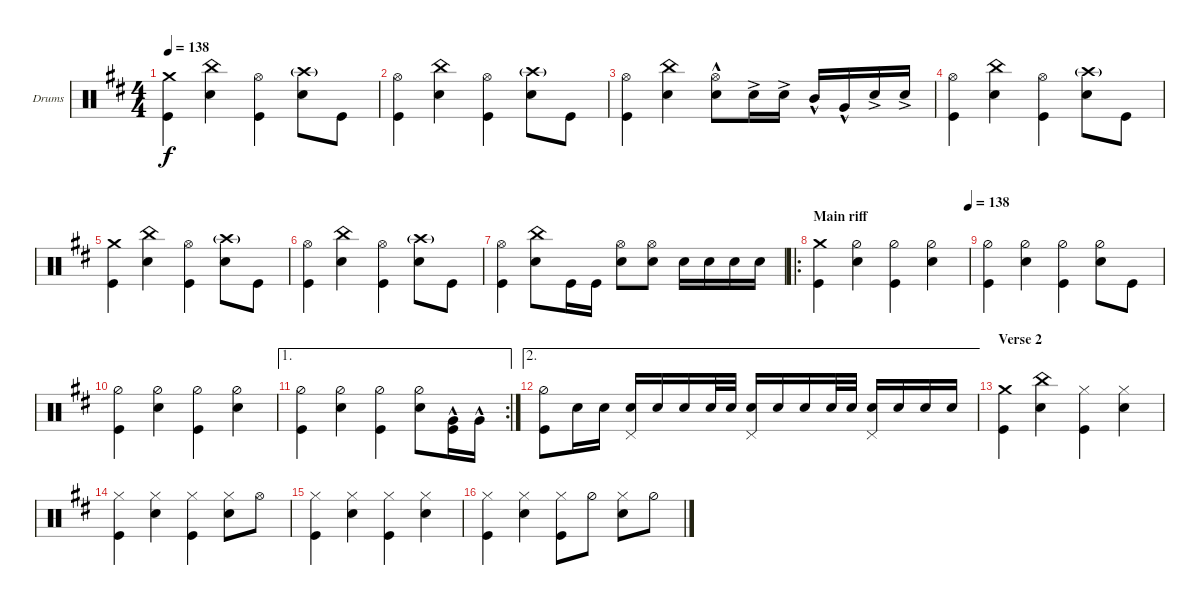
\defaultSystemsLayout 4
\bracketExtendMode groupsimilarinstruments
\firstSystemTrackNameOrientation horizontal
\otherSystemsTrackNameOrientation horizontal
\track ("Drumkit" "Drums") {instrument percussion}
\staff {score}
\articulation defaults
\ts (4 4)
\tempo 138
\clef neutral
\ks d
("Kick (hit)" "Crash medium (hit)").4{dy f} ("Snare (hit) 2" "China (hit)").4 ("Kick (hit)" "Hi-Hat (open)").4 ("Snare (hit) 2" "Crash high (hit)"{g}).8 "Kick (hit)".8 |
("Kick (hit)" "Hi-Hat (open)").4 ("Snare (hit) 2" "China (hit)").4 ("Kick (hit)" "Hi-Hat (open)").4 ("Snare (hit) 2" "Crash high (hit)"{g}).8 "Kick (hit)".8 |
("Kick (hit)" "Hi-Hat (open)").4 ("Snare (hit) 2" "China (hit)").4 ("Snare (hit) 2"{hac} "Hi-Hat (open)").8 "Snare (hit) 2"{ac}.16 "Snare (hit) 2"{ac}.16 "Mid Tom (hit)"{hac}.16 "Very Low Tom (hit)"{hac}.16 "Snare (hit) 2"{ac}.16 "Snare (hit) 2"{ac}.16 |
("Kick (hit)" "Hi-Hat (open)").4 ("Snare (hit) 2" "China (hit)").4 ("Kick (hit)" "Hi-Hat (open)").4 ("Snare (hit) 2" "Crash high (hit)"{g}).8 "Kick (hit)".8 |
("Kick (hit)" "Crash medium (hit)").4 ("Snare (hit) 2" "China (hit)").4 ("Kick (hit)" "Hi-Hat (open)").4 ("Snare (hit) 2" "Crash high (hit)"{g}).8 "Kick (hit)".8 |
("Kick (hit)" "Hi-Hat (open)").4 ("Snare (hit) 2" "China (hit)").4 ("Kick (hit)" "Hi-Hat (open)").4 ("Snare (hit) 2" "Crash high (hit)"{g}).8 "Kick (hit)".8 |
("Kick (hit)" "Hi-Hat (open)").4 ("Snare (hit) 2" "China (hit)").8 "Kick (hit)".16 "Kick (hit)".16 ("Snare (hit) 2" "Hi-Hat (open)").8 ("Snare (hit) 2" "Hi-Hat (open)").8 "Snare (hit) 2".16 "Snare (hit) 2".16 "Snare (hit) 2".16 "Snare (hit) 2".16 |
\ro
\section ("" "Main riff")
\tempo (138 1)
("Kick (hit)" "Crash medium (hit)").4 ("Hi-Hat (half)" "Snare (hit) 2").4 ("Hi-Hat (half)" "Kick (hit)").4 ("Hi-Hat (half)" "Snare (hit) 2").4 |
("Hi-Hat (half)" "Kick (hit)").4 ("Hi-Hat (half)" "Snare (hit) 2").4 ("Hi-Hat (half)" "Kick (hit)").4 ("Hi-Hat (half)" "Snare (hit) 2").8 "Kick (hit)".8 |
("Hi-Hat (half)" "Kick (hit)").4 ("Hi-Hat (half)" "Snare (hit) 2").4 ("Hi-Hat (half)" "Kick (hit)").4 ("Hi-Hat (half)" "Snare (hit) 2").4 |
\ae 1
\rc 2
("Hi-Hat (half)" "Kick (hit)").4 ("Hi-Hat (half)" "Snare (hit) 2").4 ("Hi-Hat (half)" "Kick (hit)").4 ("Hi-Hat (half)" "Snare (hit) 2").8 ("Very Low Tom (hit)"{hac} "Kick (hit)").16 "Very Low Tom (hit)"{hac}.16 |
\ae 2
("Hi-Hat (half)" "Kick (hit)").8 "Snare (hit) 2".16 "Snare (hit) 2".16 ("Snare (hit) 2" "Pedal Hi-Hat (hit)").16 "Snare (hit) 2".16 "Snare (hit) 2".16 "Snare (hit) 2".32 "Snare (hit) 2".32 ("Snare (hit) 2" "Pedal Hi-Hat (hit)").16 "Snare (hit) 2".16 "Snare (hit) 2".16 "Snare (hit) 2".32 "Snare (hit) 2".32 ("Snare (hit) 2" "Pedal Hi-Hat (hit)").16 "Snare (hit) 2".16 "Snare (hit) 2".16 "Snare (hit) 2".16 |
\section ("" "Verse 2")
("Kick (hit)" "Crash medium (hit)").4 ("Snare (hit) 2" "China (hit)").4 ("Hi-Hat (closed)" "Kick (hit)").4 ("Hi-Hat (closed)" "Snare (hit) 2").4 |
("Hi-Hat (closed)" "Kick (hit)").4 ("Hi-Hat (closed)" "Snare (hit) 2").4 ("Hi-Hat (closed)" "Kick (hit)").4 ("Hi-Hat (closed)" "Snare (hit) 2").8 "Hi-Hat (open)".8 |
("Hi-Hat (closed)" "Kick (hit)").4 ("Hi-Hat (closed)" "Snare (hit) 2").4 ("Hi-Hat (closed)" "Kick (hit)").4 ("Hi-Hat (closed)" "Snare (hit) 2").4 |
("Hi-Hat (closed)" "Kick (hit)").4 ("Hi-Hat (closed)" "Snare (hit) 2").4 ("Hi-Hat (closed)" "Kick (hit)").8 "Hi-Hat (half)".8 ("Hi-Hat (closed)" "Snare (hit) 2").8 "Hi-Hat (half)".8
